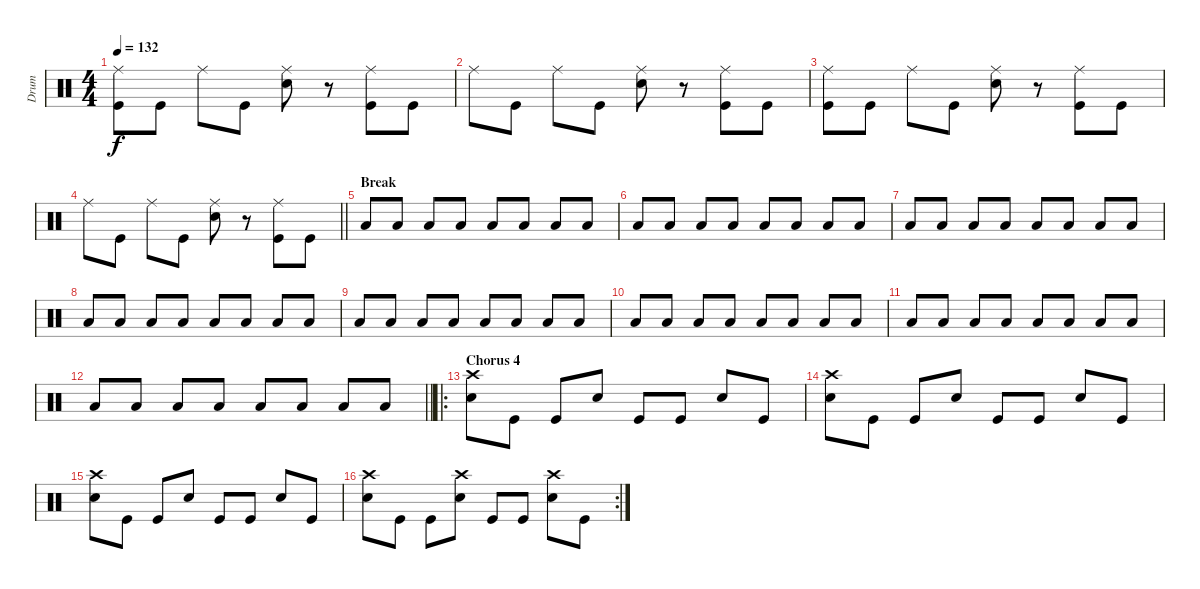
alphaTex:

\track ("Drum" "Drum") {instrument percussion}
\staff {score}
\articulation defaults
\ts (4 4)
\tempo 132
\clef neutral
\ks c
("Ride (middle)" "Kick (hit)").8{dy f} "Kick (hit)".8 "Ride (middle)".8 "Kick (hit)".8 ("Ride (middle)" "Snare (hit) 2").8 r.8 ("Ride (middle)" "Kick (hit)").8 "Kick (hit)".8 |
"Ride (middle)".8 "Kick (hit)".8 "Ride (middle)".8 "Kick (hit)".8 ("Ride (middle)" "Snare (hit) 2").8 r.8 ("Ride (middle)" "Kick (hit)").8 "Kick (hit)".8 |
("Ride (middle)" "Kick (hit)").8 "Kick (hit)".8 "Ride (middle)".8 "Kick (hit)".8 ("Ride (middle)" "Snare (hit) 2").8 r.8 ("Ride (middle)" "Kick (hit)").8 "Kick (hit)".8 |
\barLineRight lightlight "Ride (middle)".8 "Kick (hit)".8 "Ride (middle)".8 "Kick (hit)".8
("Ride (middle)" "Snare (hit) 2").8 r.8 ("Ride (middle)" "Kick (hit)").8 "Kick (hit)".8 |
\section ("" "Break")
"Low Floor Tom (hit)".8 "Low Floor Tom (hit)".8 "Low Floor Tom (hit)".8 "Low Floor Tom (hit)".8 "Low Floor Tom (hit)".8 "Low Floor Tom (hit)".8 "Low Floor Tom (hit)".8 "Low Floor Tom (hit)".8 |
"Low Floor Tom (hit)".8 "Low Floor Tom (hit)".8 "Low Floor Tom (hit)".8 "Low Floor Tom (hit)".8 "Low Floor Tom (hit)".8 "Low Floor Tom (hit)".8 "Low Floor Tom (hit)".8 "Low Floor Tom (hit)".8 |
"Low Floor Tom (hit)".8 "Low Floor Tom (hit)".8 "Low Floor Tom (hit)".8 "Low Floor Tom (hit)".8 "Low Floor Tom (hit)".8 "Low Floor Tom (hit)".8 "Low Floor Tom (hit)".8 "Low Floor Tom (hit)".8 |
"Low Floor Tom (hit)".8 "Low Floor Tom (hit)".8 "Low Floor Tom (hit)".8 "Low Floor Tom (hit)".8 "Low Floor Tom (hit)".8 "Low Floor Tom (hit)".8 "Low Floor Tom (hit)".8 "Low Floor Tom (hit)".8 |
"Low Floor Tom (hit)".8 "Low Floor Tom (hit)".8 "Low Floor Tom (hit)".8 "Low Floor Tom (hit)".8 "Low Floor Tom (hit)".8 "Low Floor Tom (hit)".8 "Low Floor Tom (hit)".8 "Low Floor Tom (hit)".8 |
"Low Floor Tom (hit)".8 "Low Floor Tom (hit)".8 "Low Floor Tom (hit)".8 "Low Floor Tom (hit)".8 "Low Floor Tom (hit)".8 "Low Floor Tom (hit)".8 "Low Floor Tom (hit)".8 "Low Floor Tom (hit)".8 |
"Low Floor Tom (hit)".8 "Low Floor Tom (hit)".8 "Low Floor Tom (hit)".8 "Low Floor Tom (hit)".8 "Low Floor Tom (hit)".8 "Low Floor Tom (hit)".8 "Low Floor Tom (hit)".8 "Low Floor Tom (hit)".8 |
\barLineRight lightlight "Low Floor Tom (hit)".8 "Low Floor Tom (hit)".8 "Low Floor Tom (hit)".8 "Low Floor Tom (hit)".8 "Low Floor Tom (hit)".8 "Low Floor Tom (hit)".8 "Low Floor Tom (hit)".8 "Low Floor Tom (hit)".8
|
\ro
\section ("" "Chorus 4")
("Crash high (hit)" "Snare (hit) 2").8 "Kick (hit)".8 "Kick (hit)".8 "Snare (hit) 2".8 "Kick (hit)".8 "Kick (hit)".8 "Snare (hit) 2".8 "Kick (hit)".8 |
("Crash high (hit)" "Snare (hit) 2").8 "Kick (hit)".8 "Kick (hit)".8 "Snare (hit) 2".8 "Kick (hit)".8 "Kick (hit)".8 "Snare (hit) 2".8 "Kick (hit)".8 |
("Crash high (hit)" "Snare (hit) 2").8 "Kick (hit)".8 "Kick (hit)".8 "Snare (hit) 2".8 "Kick (hit)".8 "Kick (hit)".8 "Snare (hit) 2".8 "Kick (hit)".8 |
\rc 2
("Crash high (hit)" "Snare (hit) 2").8 "Kick (hit)".8 "Kick (hit)".8 ("Crash high (hit)" "Snare (hit) 2").8 "Kick (hit)".8 "Kick (hit)".8 ("Crash high (hit)" "Snare (hit) 2").8 "Kick (hit)".8
